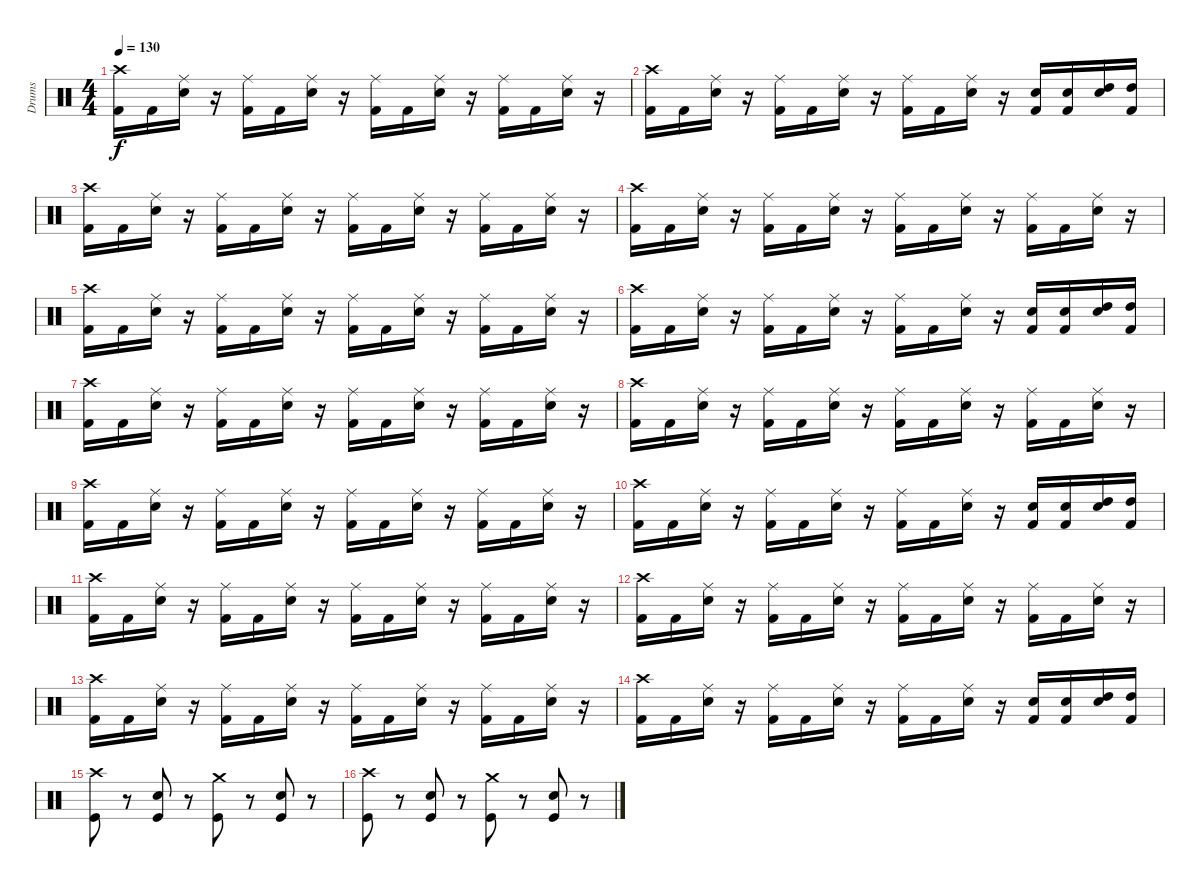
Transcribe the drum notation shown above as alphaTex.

\track ("Drums" "Drums") {instrument percussion}
\staff {score}
\articulation defaults
\ts (4 4)
\tempo 130
\clef neutral
\ks c
("Crash high (hit)" "Kick (hit) 2").16{dy f} "Kick (hit) 2".16 ("Ride (middle)" "Snare (hit) 2").16 r.16 ("Ride (middle)" "Kick (hit) 2").16 "Kick (hit) 2".16 ("Ride (middle)" "Snare (hit) 2").16 r.16 ("Ride (middle)" "Kick (hit) 2").16 "Kick (hit) 2".16 ("Ride (middle)" "Snare (hit) 2").16 r.16 ("Ride (middle)" "Kick (hit) 2").16 "Kick (hit) 2".16 ("Ride (middle)" "Snare (hit) 2").16 r.16 |
("Crash high (hit)" "Kick (hit) 2").16 "Kick (hit) 2".16 ("Ride (middle)" "Snare (hit) 2").16 r.16 ("Ride (middle)" "Kick (hit) 2").16 "Kick (hit) 2".16 ("Ride (middle)" "Snare (hit) 2").16 r.16 ("Ride (middle)" "Kick (hit) 2").16 "Kick (hit) 2".16 ("Ride (middle)" "Snare (hit) 2").16 r.16 ("Electric Snare (hit)" "Kick (hit) 2").16 ("Electric Snare (hit)" "Kick (hit) 2").16 ("High Tom (hit)" "Snare (hit) 2").16 ("High Tom (hit)" "Kick (hit) 2").16 |
("Crash high (hit)" "Kick (hit) 2").16 "Kick (hit) 2".16 ("Ride (middle)" "Snare (hit) 2").16 r.16 ("Ride (middle)" "Kick (hit) 2").16 "Kick (hit) 2".16 ("Ride (middle)" "Snare (hit) 2").16 r.16 ("Ride (middle)" "Kick (hit) 2").16 "Kick (hit) 2".16 ("Ride (middle)" "Snare (hit) 2").16 r.16 ("Ride (middle)" "Kick (hit) 2").16 "Kick (hit) 2".16 ("Ride (middle)" "Snare (hit) 2").16 r.16 |
("Crash high (hit)" "Kick (hit) 2").16 "Kick (hit) 2".16 ("Ride (middle)" "Snare (hit) 2").16 r.16 ("Ride (middle)" "Kick (hit) 2").16 "Kick (hit) 2".16 ("Ride (middle)" "Snare (hit) 2").16 r.16 ("Ride (middle)" "Kick (hit) 2").16 "Kick (hit) 2".16 ("Ride (middle)" "Snare (hit) 2").16 r.16 ("Ride (middle)" "Kick (hit) 2").16 "Kick (hit) 2".16 ("Ride (middle)" "Snare (hit) 2").16 r.16 |
("Crash high (hit)" "Kick (hit) 2").16 "Kick (hit) 2".16 ("Ride (middle)" "Snare (hit) 2").16 r.16 ("Ride (middle)" "Kick (hit) 2").16 "Kick (hit) 2".16 ("Ride (middle)" "Snare (hit) 2").16 r.16 ("Ride (middle)" "Kick (hit) 2").16 "Kick (hit) 2".16 ("Ride (middle)" "Snare (hit) 2").16 r.16 ("Ride (middle)" "Kick (hit) 2").16 "Kick (hit) 2".16 ("Ride (middle)" "Snare (hit) 2").16 r.16 |
("Crash high (hit)" "Kick (hit) 2").16 "Kick (hit) 2".16 ("Ride (middle)" "Snare (hit) 2").16 r.16 ("Ride (middle)" "Kick (hit) 2").16 "Kick (hit) 2".16 ("Ride (middle)" "Snare (hit) 2").16 r.16 ("Ride (middle)" "Kick (hit) 2").16 "Kick (hit) 2".16 ("Ride (middle)" "Snare (hit) 2").16 r.16 ("Electric Snare (hit)" "Kick (hit) 2").16 ("Electric Snare (hit)" "Kick (hit) 2").16 ("High Tom (hit)" "Snare (hit) 2").16 ("High Tom (hit)" "Kick (hit) 2").16 |
("Crash high (hit)" "Kick (hit) 2").16 "Kick (hit) 2".16 ("Ride (middle)" "Snare (hit) 2").16 r.16 ("Ride (middle)" "Kick (hit) 2").16 "Kick (hit) 2".16 ("Ride (middle)" "Snare (hit) 2").16 r.16 ("Ride (middle)" "Kick (hit) 2").16 "Kick (hit) 2".16 ("Ride (middle)" "Snare (hit) 2").16 r.16 ("Ride (middle)" "Kick (hit) 2").16 "Kick (hit) 2".16 ("Ride (middle)" "Snare (hit) 2").16 r.16 |
("Crash high (hit)" "Kick (hit) 2").16 "Kick (hit) 2".16 ("Ride (middle)" "Snare (hit) 2").16 r.16 ("Ride (middle)" "Kick (hit) 2").16 "Kick (hit) 2".16 ("Ride (middle)" "Snare (hit) 2").16 r.16 ("Ride (middle)" "Kick (hit) 2").16 "Kick (hit) 2".16 ("Ride (middle)" "Snare (hit) 2").16 r.16 ("Ride (middle)" "Kick (hit) 2").16 "Kick (hit) 2".16 ("Ride (middle)" "Snare (hit) 2").16 r.16 |
("Crash high (hit)" "Kick (hit) 2").16 "Kick (hit) 2".16 ("Ride (middle)" "Snare (hit) 2").16 r.16 ("Ride (middle)" "Kick (hit) 2").16 "Kick (hit) 2".16 ("Ride (middle)" "Snare (hit) 2").16 r.16 ("Ride (middle)" "Kick (hit) 2").16 "Kick (hit) 2".16 ("Ride (middle)" "Snare (hit) 2").16 r.16 ("Ride (middle)" "Kick (hit) 2").16 "Kick (hit) 2".16 ("Ride (middle)" "Snare (hit) 2").16 r.16 |
("Crash high (hit)" "Kick (hit) 2").16 "Kick (hit) 2".16 ("Ride (middle)" "Snare (hit) 2").16 r.16 ("Ride (middle)" "Kick (hit) 2").16 "Kick (hit) 2".16 ("Ride (middle)" "Snare (hit) 2").16 r.16 ("Ride (middle)" "Kick (hit) 2").16 "Kick (hit) 2".16 ("Ride (middle)" "Snare (hit) 2").16 r.16 ("Electric Snare (hit)" "Kick (hit) 2").16 ("Electric Snare (hit)" "Kick (hit) 2").16 ("High Tom (hit)" "Snare (hit) 2").16 ("High Tom (hit)" "Kick (hit) 2").16 |
("Crash high (hit)" "Kick (hit) 2").16 "Kick (hit) 2".16 ("Ride (middle)" "Snare (hit) 2").16 r.16 ("Ride (middle)" "Kick (hit) 2").16 "Kick (hit) 2".16 ("Ride (middle)" "Snare (hit) 2").16 r.16 ("Ride (middle)" "Kick (hit) 2").16 "Kick (hit) 2".16 ("Ride (middle)" "Snare (hit) 2").16 r.16 ("Ride (middle)" "Kick (hit) 2").16 "Kick (hit) 2".16 ("Ride (middle)" "Snare (hit) 2").16 r.16 |
("Crash high (hit)" "Kick (hit) 2").16 "Kick (hit) 2".16 ("Ride (middle)" "Snare (hit) 2").16 r.16 ("Ride (middle)" "Kick (hit) 2").16 "Kick (hit) 2".16 ("Ride (middle)" "Snare (hit) 2").16 r.16 ("Ride (middle)" "Kick (hit) 2").16 "Kick (hit) 2".16 ("Ride (middle)" "Snare (hit) 2").16 r.16 ("Ride (middle)" "Kick (hit) 2").16 "Kick (hit) 2".16 ("Ride (middle)" "Snare (hit) 2").16 r.16 |
("Crash high (hit)" "Kick (hit) 2").16 "Kick (hit) 2".16 ("Ride (middle)" "Snare (hit) 2").16 r.16 ("Ride (middle)" "Kick (hit) 2").16 "Kick (hit) 2".16 ("Ride (middle)" "Snare (hit) 2").16 r.16 ("Ride (middle)" "Kick (hit) 2").16 "Kick (hit) 2".16 ("Ride (middle)" "Snare (hit) 2").16 r.16 ("Ride (middle)" "Kick (hit) 2").16 "Kick (hit) 2".16 ("Ride (middle)" "Snare (hit) 2").16 r.16 |
("Crash high (hit)" "Kick (hit) 2").16 "Kick (hit) 2".16 ("Ride (middle)" "Snare (hit) 2").16 r.16 ("Ride (middle)" "Kick (hit) 2").16 "Kick (hit) 2".16 ("Ride (middle)" "Snare (hit) 2").16 r.16 ("Ride (middle)" "Kick (hit) 2").16 "Kick (hit) 2".16 ("Ride (middle)" "Snare (hit) 2").16 r.16 ("Electric Snare (hit)" "Kick (hit) 2").16 ("Electric Snare (hit)" "Kick (hit) 2").16 ("High Tom (hit)" "Snare (hit) 2").16 ("High Tom (hit)" "Kick (hit) 2").16 |
("Crash high (hit)" "Kick (hit)").8 r.8 ("Electric Snare (hit)" "Kick (hit)").8 r.8 ("Crash medium (hit)" "Kick (hit)").8 r.8 ("Electric Snare (hit)" "Kick (hit)").8 r.8 |
("Crash high (hit)" "Kick (hit)").8 r.8 ("Electric Snare (hit)" "Kick (hit)").8 r.8 ("Crash medium (hit)" "Kick (hit)").8 r.8 ("Electric Snare (hit)" "Kick (hit)").8 r.8
